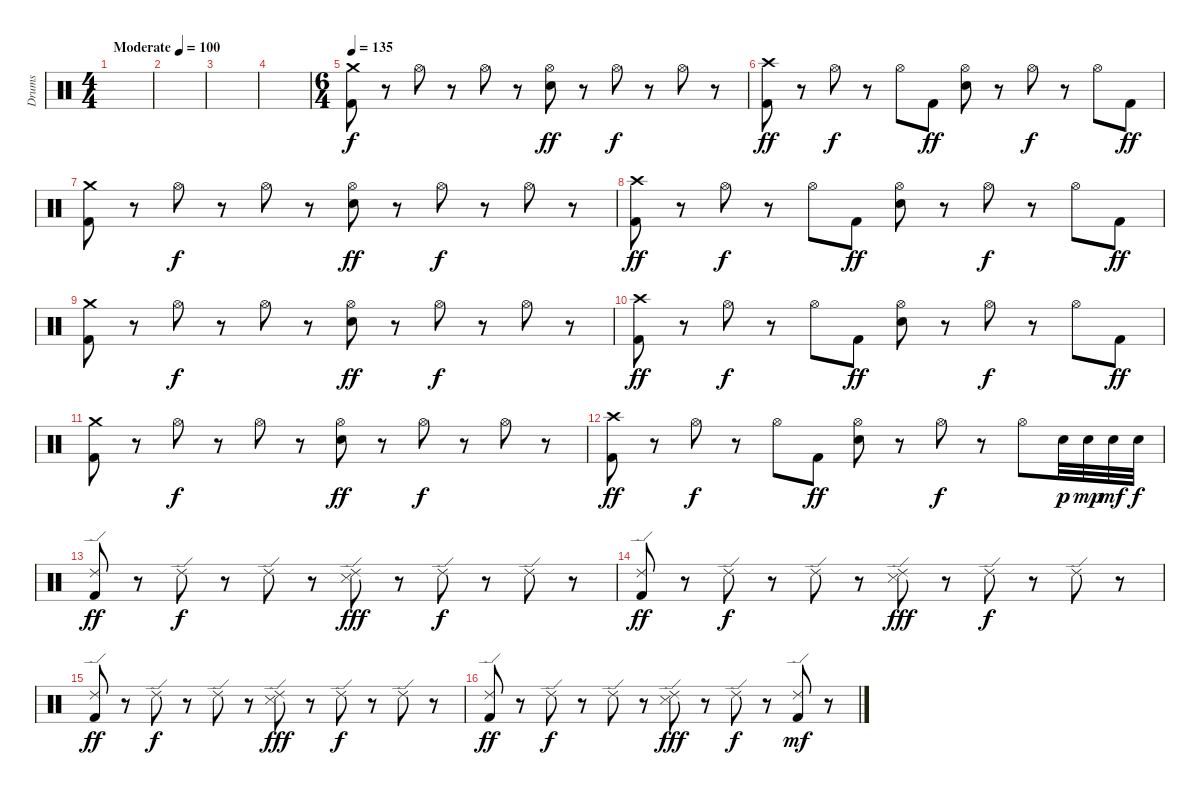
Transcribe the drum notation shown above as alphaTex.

\track ("Drums" "Drums") {instrument percussion}
\staff {score}
\articulation defaults
\ts (4 4)
\tempo (100 "Moderate")
\clef neutral
\ks c
|
|
|
|
\ts (6 4)
\tempo 135
("Crash medium (hit)" "Kick (hit) 2").8 r.8 "Hi-Hat (open)".8{dy f} r.8 "Hi-Hat (open)".8 r.8 ("Hi-Hat (open)" "Electric Snare (hit)").8{dy ff} r.8 "Hi-Hat (open)".8{dy f} r.8 "Hi-Hat (open)".8 r.8 |
("Crash high (hit)" "Kick (hit) 2").8{dy ff} r.8 "Hi-Hat (open)".8{dy f} r.8 "Hi-Hat (open)".8 "Kick (hit) 2".8{dy ff} ("Hi-Hat (open)" "Electric Snare (hit)").8 r.8 "Hi-Hat (open)".8{dy f} r.8 "Hi-Hat (open)".8 "Kick (hit) 2".8{dy ff} |
("Crash medium (hit)" "Kick (hit) 2").8 r.8 "Hi-Hat (open)".8{dy f} r.8 "Hi-Hat (open)".8 r.8 ("Hi-Hat (open)" "Electric Snare (hit)").8{dy ff} r.8 "Hi-Hat (open)".8{dy f} r.8 "Hi-Hat (open)".8 r.8 |
("Crash high (hit)" "Kick (hit) 2").8{dy ff} r.8 "Hi-Hat (open)".8{dy f} r.8 "Hi-Hat (open)".8 "Kick (hit) 2".8{dy ff} ("Hi-Hat (open)" "Electric Snare (hit)").8 r.8 "Hi-Hat (open)".8{dy f} r.8 "Hi-Hat (open)".8 "Kick (hit) 2".8{dy ff} |
("Crash medium (hit)" "Kick (hit) 2").8 r.8 "Hi-Hat (open)".8{dy f} r.8 "Hi-Hat (open)".8 r.8 ("Hi-Hat (open)" "Electric Snare (hit)").8{dy ff} r.8 "Hi-Hat (open)".8{dy f} r.8 "Hi-Hat (open)".8 r.8 |
("Crash high (hit)" "Kick (hit) 2").8{dy ff} r.8 "Hi-Hat (open)".8{dy f} r.8 "Hi-Hat (open)".8 "Kick (hit) 2".8{dy ff} ("Hi-Hat (open)" "Electric Snare (hit)").8 r.8 "Hi-Hat (open)".8{dy f} r.8 "Hi-Hat (open)".8 "Kick (hit) 2".8{dy ff} |
("Crash medium (hit)" "Kick (hit) 2").8 r.8 "Hi-Hat (open)".8{dy f} r.8 "Hi-Hat (open)".8 r.8 ("Hi-Hat (open)" "Electric Snare (hit)").8{dy ff} r.8 "Hi-Hat (open)".8{dy f} r.8 "Hi-Hat (open)".8 r.8 |
("Crash high (hit)" "Kick (hit) 2").8{dy ff} r.8 "Hi-Hat (open)".8{dy f} r.8 "Hi-Hat (open)".8 "Kick (hit) 2".8{dy ff} ("Hi-Hat (open)" "Electric Snare (hit)").8 r.8 "Hi-Hat (open)".8{dy f} r.8 "Hi-Hat (open)".8 "Electric Snare (hit)".32{dy p} "Electric Snare (hit)".32{dy mp} "Electric Snare (hit)".32{dy mf} "Electric Snare (hit)".32{dy f} |
("Ride (edge) 2" "Kick (hit) 2").8{dy ff volume 11} r.8 "Ride (edge) 2".8{dy f} r.8 "Ride (edge) 2".8 r.8 ("Ride (edge) 2" "Snare (side stick) 3").8{dy fff} r.8 "Ride (edge) 2".8{dy f} r.8 "Ride (edge) 2".8 r.8 |
("Ride (edge) 2" "Kick (hit) 2").8{dy ff} r.8 "Ride (edge) 2".8{dy f} r.8 "Ride (edge) 2".8 r.8 ("Ride (edge) 2" "Snare (side stick) 3").8{dy fff} r.8 "Ride (edge) 2".8{dy f} r.8 "Ride (edge) 2".8 r.8 |
("Ride (edge) 2" "Kick (hit) 2").8{dy ff} r.8 "Ride (edge) 2".8{dy f} r.8 "Ride (edge) 2".8 r.8 ("Ride (edge) 2" "Snare (side stick) 3").8{dy fff} r.8 "Ride (edge) 2".8{dy f} r.8 "Ride (edge) 2".8 r.8 |
("Ride (edge) 2" "Kick (hit) 2").8{dy ff} r.8 "Ride (edge) 2".8{dy f} r.8 "Ride (edge) 2".8 r.8 ("Ride (edge) 2" "Snare (side stick) 3").8{dy fff} r.8 "Ride (edge) 2".8{dy f} r.8 ("Ride (edge) 2" "Kick (hit) 2").8{dy mf} r.8
